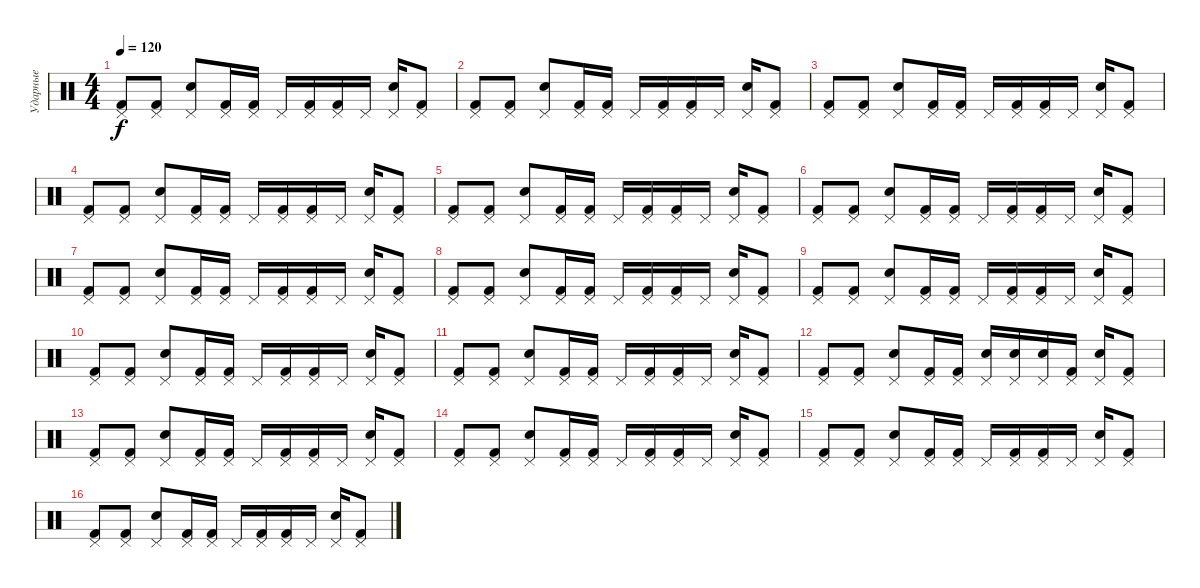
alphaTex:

\track ("Ударные" "Ударные") {instrument percussion}
\staff {score}
\articulation defaults
\ts (4 4)
\tempo 120
\clef neutral
\ks c
("Pedal Hi-Hat (hit)" "Kick (hit) 2").8{dy f} ("Pedal Hi-Hat (hit)" "Kick (hit) 2").8 ("Pedal Hi-Hat (hit)" "Snare (hit) 2").8 ("Pedal Hi-Hat (hit)" "Kick (hit) 2").16 ("Pedal Hi-Hat (hit)" "Kick (hit) 2").16 "Pedal Hi-Hat (hit)".16 ("Pedal Hi-Hat (hit)" "Kick (hit) 2").16 ("Pedal Hi-Hat (hit)" "Kick (hit) 2").16 "Pedal Hi-Hat (hit)".16 ("Pedal Hi-Hat (hit)" "Snare (hit) 2").16 ("Pedal Hi-Hat (hit)" "Kick (hit) 2").8 |
("Pedal Hi-Hat (hit)" "Kick (hit) 2").8 ("Pedal Hi-Hat (hit)" "Kick (hit) 2").8 ("Pedal Hi-Hat (hit)" "Snare (hit) 2").8 ("Pedal Hi-Hat (hit)" "Kick (hit) 2").16 ("Pedal Hi-Hat (hit)" "Kick (hit) 2").16 "Pedal Hi-Hat (hit)".16 ("Pedal Hi-Hat (hit)" "Kick (hit) 2").16 ("Pedal Hi-Hat (hit)" "Kick (hit) 2").16 "Pedal Hi-Hat (hit)".16 ("Pedal Hi-Hat (hit)" "Snare (hit) 2").16 ("Pedal Hi-Hat (hit)" "Kick (hit) 2").8 |
("Pedal Hi-Hat (hit)" "Kick (hit) 2").8 ("Pedal Hi-Hat (hit)" "Kick (hit) 2").8 ("Pedal Hi-Hat (hit)" "Snare (hit) 2").8 ("Pedal Hi-Hat (hit)" "Kick (hit) 2").16 ("Pedal Hi-Hat (hit)" "Kick (hit) 2").16 "Pedal Hi-Hat (hit)".16 ("Pedal Hi-Hat (hit)" "Kick (hit) 2").16 ("Pedal Hi-Hat (hit)" "Kick (hit) 2").16 "Pedal Hi-Hat (hit)".16 ("Pedal Hi-Hat (hit)" "Snare (hit) 2").16 ("Pedal Hi-Hat (hit)" "Kick (hit) 2").8 |
("Pedal Hi-Hat (hit)" "Kick (hit) 2").8 ("Pedal Hi-Hat (hit)" "Kick (hit) 2").8 ("Pedal Hi-Hat (hit)" "Snare (hit) 2").8 ("Pedal Hi-Hat (hit)" "Kick (hit) 2").16 ("Pedal Hi-Hat (hit)" "Kick (hit) 2").16 "Pedal Hi-Hat (hit)".16 ("Pedal Hi-Hat (hit)" "Kick (hit) 2").16 ("Pedal Hi-Hat (hit)" "Kick (hit) 2").16 "Pedal Hi-Hat (hit)".16 ("Pedal Hi-Hat (hit)" "Snare (hit) 2").16 ("Pedal Hi-Hat (hit)" "Kick (hit) 2").8 |
("Pedal Hi-Hat (hit)" "Kick (hit) 2").8 ("Pedal Hi-Hat (hit)" "Kick (hit) 2").8 ("Pedal Hi-Hat (hit)" "Snare (hit) 2").8 ("Pedal Hi-Hat (hit)" "Kick (hit) 2").16 ("Pedal Hi-Hat (hit)" "Kick (hit) 2").16 "Pedal Hi-Hat (hit)".16 ("Pedal Hi-Hat (hit)" "Kick (hit) 2").16 ("Pedal Hi-Hat (hit)" "Kick (hit) 2").16 "Pedal Hi-Hat (hit)".16 ("Pedal Hi-Hat (hit)" "Snare (hit) 2").16 ("Pedal Hi-Hat (hit)" "Kick (hit) 2").8 |
("Pedal Hi-Hat (hit)" "Kick (hit) 2").8 ("Pedal Hi-Hat (hit)" "Kick (hit) 2").8 ("Pedal Hi-Hat (hit)" "Snare (hit) 2").8 ("Pedal Hi-Hat (hit)" "Kick (hit) 2").16 ("Pedal Hi-Hat (hit)" "Kick (hit) 2").16 "Pedal Hi-Hat (hit)".16 ("Pedal Hi-Hat (hit)" "Kick (hit) 2").16 ("Pedal Hi-Hat (hit)" "Kick (hit) 2").16 "Pedal Hi-Hat (hit)".16 ("Pedal Hi-Hat (hit)" "Snare (hit) 2").16 ("Pedal Hi-Hat (hit)" "Kick (hit) 2").8 |
("Pedal Hi-Hat (hit)" "Kick (hit) 2").8 ("Pedal Hi-Hat (hit)" "Kick (hit) 2").8 ("Pedal Hi-Hat (hit)" "Snare (hit) 2").8 ("Pedal Hi-Hat (hit)" "Kick (hit) 2").16 ("Pedal Hi-Hat (hit)" "Kick (hit) 2").16 "Pedal Hi-Hat (hit)".16 ("Pedal Hi-Hat (hit)" "Kick (hit) 2").16 ("Pedal Hi-Hat (hit)" "Kick (hit) 2").16 "Pedal Hi-Hat (hit)".16 ("Pedal Hi-Hat (hit)" "Snare (hit) 2").16 ("Pedal Hi-Hat (hit)" "Kick (hit) 2").8 |
("Pedal Hi-Hat (hit)" "Kick (hit) 2").8 ("Pedal Hi-Hat (hit)" "Kick (hit) 2").8 ("Pedal Hi-Hat (hit)" "Snare (hit) 2").8 ("Pedal Hi-Hat (hit)" "Kick (hit) 2").16 ("Pedal Hi-Hat (hit)" "Kick (hit) 2").16 "Pedal Hi-Hat (hit)".16 ("Pedal Hi-Hat (hit)" "Kick (hit) 2").16 ("Pedal Hi-Hat (hit)" "Kick (hit) 2").16 "Pedal Hi-Hat (hit)".16 ("Pedal Hi-Hat (hit)" "Snare (hit) 2").16 ("Pedal Hi-Hat (hit)" "Kick (hit) 2").8 |
("Pedal Hi-Hat (hit)" "Kick (hit) 2").8 ("Pedal Hi-Hat (hit)" "Kick (hit) 2").8 ("Pedal Hi-Hat (hit)" "Snare (hit) 2").8 ("Pedal Hi-Hat (hit)" "Kick (hit) 2").16 ("Pedal Hi-Hat (hit)" "Kick (hit) 2").16 "Pedal Hi-Hat (hit)".16 ("Pedal Hi-Hat (hit)" "Kick (hit) 2").16 ("Pedal Hi-Hat (hit)" "Kick (hit) 2").16 "Pedal Hi-Hat (hit)".16 ("Pedal Hi-Hat (hit)" "Snare (hit) 2").16 ("Pedal Hi-Hat (hit)" "Kick (hit) 2").8 |
("Pedal Hi-Hat (hit)" "Kick (hit) 2").8 ("Pedal Hi-Hat (hit)" "Kick (hit) 2").8 ("Pedal Hi-Hat (hit)" "Snare (hit) 2").8 ("Pedal Hi-Hat (hit)" "Kick (hit) 2").16 ("Pedal Hi-Hat (hit)" "Kick (hit) 2").16 "Pedal Hi-Hat (hit)".16 ("Pedal Hi-Hat (hit)" "Kick (hit) 2").16 ("Pedal Hi-Hat (hit)" "Kick (hit) 2").16 "Pedal Hi-Hat (hit)".16 ("Pedal Hi-Hat (hit)" "Snare (hit) 2").16 ("Pedal Hi-Hat (hit)" "Kick (hit) 2").8 |
("Pedal Hi-Hat (hit)" "Kick (hit) 2").8 ("Pedal Hi-Hat (hit)" "Kick (hit) 2").8 ("Pedal Hi-Hat (hit)" "Snare (hit) 2").8 ("Pedal Hi-Hat (hit)" "Kick (hit) 2").16 ("Pedal Hi-Hat (hit)" "Kick (hit) 2").16 "Pedal Hi-Hat (hit)".16 ("Pedal Hi-Hat (hit)" "Kick (hit) 2").16 ("Pedal Hi-Hat (hit)" "Kick (hit) 2").16 "Pedal Hi-Hat (hit)".16 ("Pedal Hi-Hat (hit)" "Snare (hit) 2").16 ("Pedal Hi-Hat (hit)" "Kick (hit) 2").8 |
("Pedal Hi-Hat (hit)" "Kick (hit) 2").8 ("Pedal Hi-Hat (hit)" "Kick (hit) 2").8 ("Pedal Hi-Hat (hit)" "Snare (hit) 2").8 ("Pedal Hi-Hat (hit)" "Kick (hit) 2").16 ("Pedal Hi-Hat (hit)" "Kick (hit) 2").16 ("Pedal Hi-Hat (hit)" "Electric Snare (hit)").16 ("Pedal Hi-Hat (hit)" "Snare (hit) 2").16 ("Pedal Hi-Hat (hit)" "Snare (hit) 2").16 ("Pedal Hi-Hat (hit)" "Kick (hit) 2").16 ("Pedal Hi-Hat (hit)" "Snare (hit) 2").16 ("Pedal Hi-Hat (hit)" "Kick (hit) 2").8 |
("Pedal Hi-Hat (hit)" "Kick (hit) 2").8 ("Pedal Hi-Hat (hit)" "Kick (hit) 2").8 ("Pedal Hi-Hat (hit)" "Snare (hit) 2").8 ("Pedal Hi-Hat (hit)" "Kick (hit) 2").16 ("Pedal Hi-Hat (hit)" "Kick (hit) 2").16 "Pedal Hi-Hat (hit)".16 ("Pedal Hi-Hat (hit)" "Kick (hit) 2").16 ("Pedal Hi-Hat (hit)" "Kick (hit) 2").16 "Pedal Hi-Hat (hit)".16 ("Pedal Hi-Hat (hit)" "Snare (hit) 2").16 ("Pedal Hi-Hat (hit)" "Kick (hit) 2").8 |
("Pedal Hi-Hat (hit)" "Kick (hit) 2").8 ("Pedal Hi-Hat (hit)" "Kick (hit) 2").8 ("Pedal Hi-Hat (hit)" "Snare (hit) 2").8 ("Pedal Hi-Hat (hit)" "Kick (hit) 2").16 ("Pedal Hi-Hat (hit)" "Kick (hit) 2").16 "Pedal Hi-Hat (hit)".16 ("Pedal Hi-Hat (hit)" "Kick (hit) 2").16 ("Pedal Hi-Hat (hit)" "Kick (hit) 2").16 "Pedal Hi-Hat (hit)".16 ("Pedal Hi-Hat (hit)" "Snare (hit) 2").16 ("Pedal Hi-Hat (hit)" "Kick (hit) 2").8 |
("Pedal Hi-Hat (hit)" "Kick (hit) 2").8 ("Pedal Hi-Hat (hit)" "Kick (hit) 2").8 ("Pedal Hi-Hat (hit)" "Snare (hit) 2").8 ("Pedal Hi-Hat (hit)" "Kick (hit) 2").16 ("Pedal Hi-Hat (hit)" "Kick (hit) 2").16 "Pedal Hi-Hat (hit)".16 ("Pedal Hi-Hat (hit)" "Kick (hit) 2").16 ("Pedal Hi-Hat (hit)" "Kick (hit) 2").16 "Pedal Hi-Hat (hit)".16 ("Pedal Hi-Hat (hit)" "Snare (hit) 2").16 ("Pedal Hi-Hat (hit)" "Kick (hit) 2").8 |
("Pedal Hi-Hat (hit)" "Kick (hit) 2").8 ("Pedal Hi-Hat (hit)" "Kick (hit) 2").8 ("Pedal Hi-Hat (hit)" "Snare (hit) 2").8 ("Pedal Hi-Hat (hit)" "Kick (hit) 2").16 ("Pedal Hi-Hat (hit)" "Kick (hit) 2").16 "Pedal Hi-Hat (hit)".16 ("Pedal Hi-Hat (hit)" "Kick (hit) 2").16 ("Pedal Hi-Hat (hit)" "Kick (hit) 2").16 "Pedal Hi-Hat (hit)".16 ("Pedal Hi-Hat (hit)" "Snare (hit) 2").16 ("Pedal Hi-Hat (hit)" "Kick (hit) 2").8
